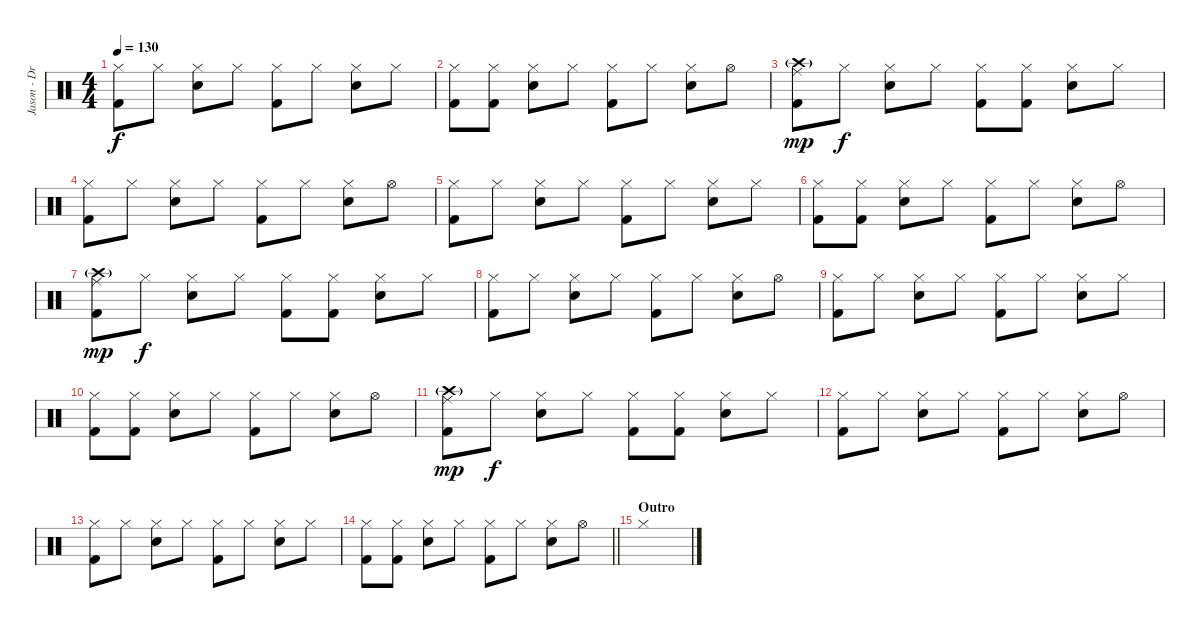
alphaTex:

\track ("Jason - Drums" "Jason - Dr") {instrument percussion}
\staff {score}
\articulation defaults
\ts (4 4)
\tempo 130
\clef neutral
\ks c
("Hi-Hat (closed)" "Kick (hit) 2").8{dy f} "Hi-Hat (closed)".8 ("Hi-Hat (closed)" "Snare (hit) 2").8 "Hi-Hat (closed)".8 ("Hi-Hat (closed)" "Kick (hit) 2").8 "Hi-Hat (closed)".8 ("Hi-Hat (closed)" "Snare (hit) 2").8 "Hi-Hat (closed)".8 |
("Hi-Hat (closed)" "Kick (hit) 2").8 ("Hi-Hat (closed)" "Kick (hit) 2").8 ("Hi-Hat (closed)" "Snare (hit) 2").8 "Hi-Hat (closed)".8 ("Hi-Hat (closed)" "Kick (hit) 2").8 "Hi-Hat (closed)".8 ("Hi-Hat (closed)" "Snare (hit) 2").8 "Hi-Hat (open)".8 |
("Crash high (hit)"{g} "Ride (middle)" "Kick (hit) 2").8{dy mp} "Hi-Hat (closed)".8{dy f} ("Hi-Hat (closed)" "Snare (hit) 2").8 "Hi-Hat (closed)".8 ("Hi-Hat (closed)" "Kick (hit) 2").8 ("Hi-Hat (closed)" "Kick (hit) 2").8 ("Hi-Hat (closed)" "Snare (hit) 2").8 "Hi-Hat (closed)".8 |
("Hi-Hat (closed)" "Kick (hit) 2").8 "Hi-Hat (closed)".8 ("Hi-Hat (closed)" "Snare (hit) 2").8 "Hi-Hat (closed)".8 ("Hi-Hat (closed)" "Kick (hit) 2").8 "Hi-Hat (closed)".8 ("Hi-Hat (closed)" "Snare (hit) 2").8 "Hi-Hat (open)".8 |
("Hi-Hat (closed)" "Kick (hit) 2").8 "Hi-Hat (closed)".8 ("Hi-Hat (closed)" "Snare (hit) 2").8 "Hi-Hat (closed)".8 ("Hi-Hat (closed)" "Kick (hit) 2").8 "Hi-Hat (closed)".8 ("Hi-Hat (closed)" "Snare (hit) 2").8 "Hi-Hat (closed)".8 |
("Hi-Hat (closed)" "Kick (hit) 2").8 ("Hi-Hat (closed)" "Kick (hit) 2").8 ("Hi-Hat (closed)" "Snare (hit) 2").8 "Hi-Hat (closed)".8 ("Hi-Hat (closed)" "Kick (hit) 2").8 "Hi-Hat (closed)".8 ("Hi-Hat (closed)" "Snare (hit) 2").8 "Hi-Hat (open)".8 |
("Crash high (hit)"{g} "Ride (middle)" "Kick (hit) 2").8{dy mp} "Hi-Hat (closed)".8{dy f} ("Hi-Hat (closed)" "Snare (hit) 2").8 "Hi-Hat (closed)".8 ("Hi-Hat (closed)" "Kick (hit) 2").8 ("Hi-Hat (closed)" "Kick (hit) 2").8 ("Hi-Hat (closed)" "Snare (hit) 2").8 "Hi-Hat (closed)".8 |
("Hi-Hat (closed)" "Kick (hit) 2").8 "Hi-Hat (closed)".8 ("Hi-Hat (closed)" "Snare (hit) 2").8 "Hi-Hat (closed)".8 ("Hi-Hat (closed)" "Kick (hit) 2").8 "Hi-Hat (closed)".8 ("Hi-Hat (closed)" "Snare (hit) 2").8 "Hi-Hat (open)".8 |
("Hi-Hat (closed)" "Kick (hit) 2").8 "Hi-Hat (closed)".8 ("Hi-Hat (closed)" "Snare (hit) 2").8 "Hi-Hat (closed)".8 ("Hi-Hat (closed)" "Kick (hit) 2").8 "Hi-Hat (closed)".8 ("Hi-Hat (closed)" "Snare (hit) 2").8 "Hi-Hat (closed)".8 |
("Hi-Hat (closed)" "Kick (hit) 2").8 ("Hi-Hat (closed)" "Kick (hit) 2").8 ("Hi-Hat (closed)" "Snare (hit) 2").8 "Hi-Hat (closed)".8 ("Hi-Hat (closed)" "Kick (hit) 2").8 "Hi-Hat (closed)".8 ("Hi-Hat (closed)" "Snare (hit) 2").8 "Hi-Hat (open)".8 |
("Crash high (hit)"{g} "Ride (middle)" "Kick (hit) 2").8{dy mp} "Hi-Hat (closed)".8{dy f} ("Hi-Hat (closed)" "Snare (hit) 2").8 "Hi-Hat (closed)".8 ("Hi-Hat (closed)" "Kick (hit) 2").8 ("Hi-Hat (closed)" "Kick (hit) 2").8 ("Hi-Hat (closed)" "Snare (hit) 2").8 "Hi-Hat (closed)".8 |
("Hi-Hat (closed)" "Kick (hit) 2").8 "Hi-Hat (closed)".8 ("Hi-Hat (closed)" "Snare (hit) 2").8 "Hi-Hat (closed)".8 ("Hi-Hat (closed)" "Kick (hit) 2").8 "Hi-Hat (closed)".8 ("Hi-Hat (closed)" "Snare (hit) 2").8 "Hi-Hat (open)".8 |
("Hi-Hat (closed)" "Kick (hit) 2").8 "Hi-Hat (closed)".8 ("Hi-Hat (closed)" "Snare (hit) 2").8 "Hi-Hat (closed)".8 ("Hi-Hat (closed)" "Kick (hit) 2").8 "Hi-Hat (closed)".8 ("Hi-Hat (closed)" "Snare (hit) 2").8 "Hi-Hat (closed)".8 |
\barLineRight lightlight
("Hi-Hat (closed)" "Kick (hit) 2").8 ("Hi-Hat (closed)" "Kick (hit) 2").8 ("Hi-Hat (closed)" "Snare (hit) 2").8 "Hi-Hat (closed)".8 ("Hi-Hat (closed)" "Kick (hit) 2").8 "Hi-Hat (closed)".8 ("Hi-Hat (closed)" "Snare (hit) 2").8 "Hi-Hat (open)".8 |
\section ("" "Outro")
"Hi-Hat (closed)".1
